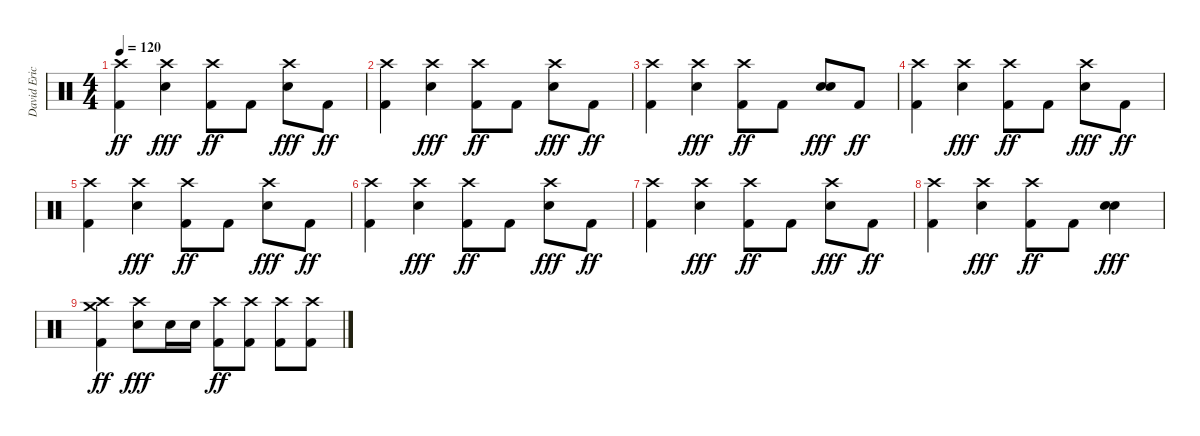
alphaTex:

\track ("David Eric Grohl" "David Eric") {instrument percussion}
\staff {score}
\articulation defaults
\ts (4 4)
\tempo 120
\clef neutral
\ks c
("Crash high (hit)" "Kick (hit) 2").4{dy ff} ("Crash high (hit)" "Electric Snare (hit)").4{dy fff} ("Crash high (hit)" "Kick (hit) 2").8{dy ff} "Kick (hit) 2".8 ("Crash high (hit)" "Electric Snare (hit)").8{dy fff} "Kick (hit) 2".8{dy ff} |
("Crash high (hit)" "Kick (hit) 2").4 ("Crash high (hit)" "Electric Snare (hit)").4{dy fff} ("Crash high (hit)" "Kick (hit) 2").8{dy ff} "Kick (hit) 2".8 ("Crash high (hit)" "Electric Snare (hit)").8{dy fff} "Kick (hit) 2".8{dy ff} |
("Crash high (hit)" "Kick (hit) 2").4 ("Crash high (hit)" "Electric Snare (hit)").4{dy fff} ("Crash high (hit)" "Kick (hit) 2").8{dy ff} "Kick (hit) 2".8 ("Electric Snare (hit)" "Electric Snare (hit)").8{dy fff} "Kick (hit) 2".8{dy ff} |
("Crash high (hit)" "Kick (hit) 2").4 ("Crash high (hit)" "Electric Snare (hit)").4{dy fff} ("Crash high (hit)" "Kick (hit) 2").8{dy ff} "Kick (hit) 2".8 ("Crash high (hit)" "Electric Snare (hit)").8{dy fff} "Kick (hit) 2".8{dy ff} |
("Crash high (hit)" "Kick (hit) 2").4 ("Crash high (hit)" "Electric Snare (hit)").4{dy fff} ("Crash high (hit)" "Kick (hit) 2").8{dy ff} "Kick (hit) 2".8 ("Crash high (hit)" "Electric Snare (hit)").8{dy fff} "Kick (hit) 2".8{dy ff} |
("Crash high (hit)" "Kick (hit) 2").4 ("Crash high (hit)" "Electric Snare (hit)").4{dy fff} ("Crash high (hit)" "Kick (hit) 2").8{dy ff} "Kick (hit) 2".8 ("Crash high (hit)" "Electric Snare (hit)").8{dy fff} "Kick (hit) 2".8{dy ff} |
("Crash high (hit)" "Kick (hit) 2").4 ("Crash high (hit)" "Electric Snare (hit)").4{dy fff} ("Crash high (hit)" "Kick (hit) 2").8{dy ff} "Kick (hit) 2".8 ("Crash high (hit)" "Electric Snare (hit)").8{dy fff} "Kick (hit) 2".8{dy ff} |
("Crash high (hit)" "Kick (hit) 2").4 ("Crash high (hit)" "Electric Snare (hit)").4{dy fff} ("Crash high (hit)" "Kick (hit) 2").8{dy ff} "Kick (hit) 2".8 ("Electric Snare (hit)" "Electric Snare (hit)").4{dy fff} |
("Crash high (hit)" "Crash medium (hit)" "Kick (hit) 2").4{dy ff} ("Crash high (hit)" "Electric Snare (hit)").8{dy fff} "Electric Snare (hit)".16 "Electric Snare (hit)".16 ("Crash high (hit)" "Kick (hit) 2").8{dy ff} ("Crash high (hit)" "Kick (hit) 2").8 ("Crash high (hit)" "Kick (hit) 2").8 ("Crash high (hit)" "Kick (hit) 2").8
